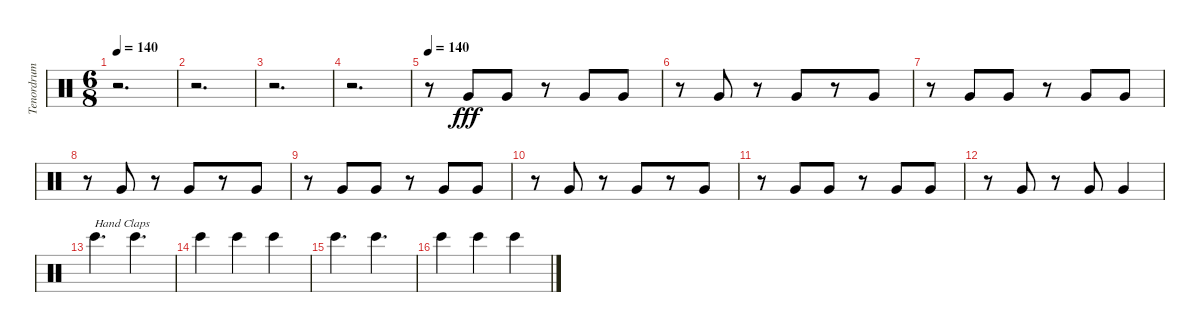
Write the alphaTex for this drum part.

\track ("Tenordrum" "Tenordrum") {instrument percussion}
\staff {score}
\articulation defaults
\ts (6 8)
\tempo 140
\clef neutral
\ks c
r.2{d dy fff} |
r.2{d} |
r.2{d} |
r.2{d} |
\tempo 140
r.8 "Very Low Tom (hit)".8 "Very Low Tom (hit)".8 r.8 "Very Low Tom (hit)".8 "Very Low Tom (hit)".8 |
r.8 "Very Low Tom (hit)".8 r.8 "Very Low Tom (hit)".8 r.8 "Very Low Tom (hit)".8 |
r.8 "Very Low Tom (hit)".8 "Very Low Tom (hit)".8 r.8 "Very Low Tom (hit)".8 "Very Low Tom (hit)".8 |
r.8 "Very Low Tom (hit)".8 r.8 "Very Low Tom (hit)".8 r.8 "Very Low Tom (hit)".8 |
r.8 "Very Low Tom (hit)".8 "Very Low Tom (hit)".8 r.8 "Very Low Tom (hit)".8 "Very Low Tom (hit)".8 |
r.8 "Very Low Tom (hit)".8 r.8 "Very Low Tom (hit)".8 r.8 "Very Low Tom (hit)".8 |
r.8 "Very Low Tom (hit)".8 "Very Low Tom (hit)".8 r.8 "Very Low Tom (hit)".8 "Very Low Tom (hit)".8 |
r.8 "Very Low Tom (hit)".8 r.8 "Very Low Tom (hit)".8 "Very Low Tom (hit)".4 |
"Bongo High (hit)".4{d txt "Hand Claps"} "Bongo High (hit)".4{d} |
"Bongo High (hit)".4 "Bongo High (hit)".4 "Bongo High (hit)".4 |
"Bongo High (hit)".4{d} "Bongo High (hit)".4{d} |
"Bongo High (hit)".4 "Bongo High (hit)".4 "Bongo High (hit)".4
